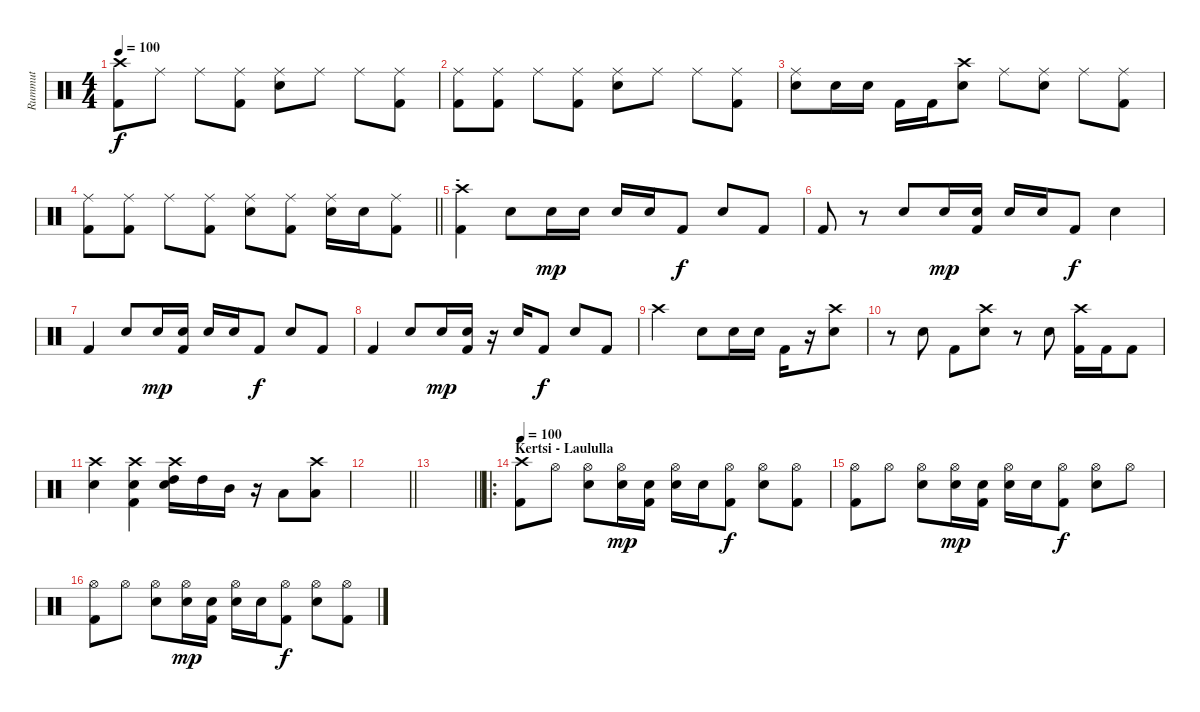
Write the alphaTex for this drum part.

\track ("Rummut" "Rummut") {instrument percussion}
\staff {score}
\articulation defaults
\ts (4 4)
\tempo 100
\clef neutral
\ks c
("Crash high (hit)" "Kick (hit) 2").8{dy f} "Ride (middle)".8 "Ride (middle)".8 ("Ride (middle)" "Kick (hit) 2").8 ("Ride (middle)" "Snare (hit) 2").8 "Ride (middle)".8 "Ride (middle)".8 ("Ride (middle)" "Kick (hit) 2").8 |
("Ride (middle)" "Kick (hit) 2").8 ("Ride (middle)" "Kick (hit) 2").8 "Ride (middle)".8 ("Ride (middle)" "Kick (hit) 2").8 ("Ride (middle)" "Snare (hit) 2").8 "Ride (middle)".8 "Ride (middle)".8 ("Ride (middle)" "Kick (hit) 2").8 |
("Ride (middle)" "Snare (hit) 2").8 "Snare (hit) 2".16 "Snare (hit) 2".16 "Kick (hit) 2".16 "Kick (hit) 2".16 ("Crash high (hit)" "Snare (hit) 2").8 "Ride (middle)".8 ("Ride (middle)" "Snare (hit) 2").8 "Ride (middle)".8 ("Ride (middle)" "Kick (hit) 2").8 |
\barLineRight lightlight
("Ride (middle)" "Kick (hit) 2").8 ("Ride (middle)" "Kick (hit) 2").8 "Ride (middle)".8 ("Ride (middle)" "Kick (hit) 2").8 ("Ride (middle)" "Snare (hit) 2").8 ("Ride (middle)" "Kick (hit) 2").8 ("Ride (middle)" "Snare (hit) 2").16 "Snare (hit) 2".16 ("Ride (middle)" "Kick (hit) 2").8 |
\section ("" "-")
("Crash high (hit)" "Kick (hit) 2").4 "Snare (hit) 2".8 "Snare (hit) 2".16{dy mp} "Snare (hit) 2".16 "Snare (hit) 2".16 "Snare (hit) 2".16 "Kick (hit) 2".8{dy f} "Snare (hit) 2".8 "Kick (hit) 2".8 |
"Kick (hit) 2".8 r.8 "Snare (hit) 2".8 "Snare (hit) 2".16{dy mp} ("Snare (hit) 2" "Kick (hit) 2").16 "Snare (hit) 2".16 "Snare (hit) 2".16 "Kick (hit) 2".8{dy f} "Snare (hit) 2".4 |
"Kick (hit) 2".4 "Snare (hit) 2".8 "Snare (hit) 2".16{dy mp} ("Snare (hit) 2" "Kick (hit) 2").16 "Snare (hit) 2".16 "Snare (hit) 2".16 "Kick (hit) 2".8{dy f} "Snare (hit) 2".8 "Kick (hit) 2".8 |
"Kick (hit) 2".4 "Snare (hit) 2".8 "Snare (hit) 2".16{dy mp} ("Snare (hit) 2" "Kick (hit) 2").16 r.16 "Snare (hit) 2".16 "Kick (hit) 2".8{dy f} "Snare (hit) 2".8 "Kick (hit) 2".8 |
"Crash high (hit)".2 "Snare (hit) 2".8 "Snare (hit) 2".16 "Snare (hit) 2".16 "Kick (hit) 2".16 r.16 ("Crash high (hit)" "Snare (hit) 2").8 |
r.8 "Snare (hit) 2".8 "Kick (hit) 2".8 ("Crash high (hit)" "Snare (hit) 2").8 r.8 "Snare (hit) 2".8 ("Crash high (hit)" "Kick (hit) 2").16 "Kick (hit) 2".16 "Kick (hit) 2".8 |
("Crash high (hit)" "Snare (hit) 2").4 ("Crash high (hit)" "Snare (hit) 2" "Kick (hit) 2").4 ("Crash high (hit)" "High Tom (hit)" "Snare (hit) 2").16 "High Tom (hit)".16 "Mid Tom (hit)".16 r.16 "Low Tom (hit)".8 ("Crash high (hit)" "Low Floor Tom (hit)").8 |
\barLineRight lightlight
|
\barLineRight lightlight
|
\ro
\section ("" "Kertsi - Laululla")
\tempo 100
("Crash high (hit)" "Kick (hit) 2").8 "Hi-Hat (open)".8 ("Hi-Hat (open)" "Snare (hit) 2").8 ("Hi-Hat (open)" "Snare (hit) 2").16{dy mp} ("Snare (hit) 2" "Kick (hit) 2").16 ("Hi-Hat (open)" "Snare (hit) 2").16 "Snare (hit) 2".16 ("Hi-Hat (open)" "Kick (hit) 2").8{dy f} ("Hi-Hat (open)" "Snare (hit) 2").8 ("Hi-Hat (open)" "Kick (hit) 2").8 |
("Hi-Hat (open)" "Kick (hit) 2").8 "Hi-Hat (open)".8 ("Hi-Hat (open)" "Snare (hit) 2").8 ("Hi-Hat (open)" "Snare (hit) 2").16{dy mp} ("Snare (hit) 2" "Kick (hit) 2").16 ("Hi-Hat (open)" "Snare (hit) 2").16 "Snare (hit) 2".16 ("Hi-Hat (open)" "Kick (hit) 2").8{dy f} ("Hi-Hat (open)" "Snare (hit) 2").8 "Hi-Hat (open)".8 |
("Hi-Hat (open)" "Kick (hit) 2").8 "Hi-Hat (open)".8 ("Hi-Hat (open)" "Snare (hit) 2").8 ("Hi-Hat (open)" "Snare (hit) 2").16{dy mp} ("Snare (hit) 2" "Kick (hit) 2").16 ("Hi-Hat (open)" "Snare (hit) 2").16 "Snare (hit) 2".16 ("Hi-Hat (open)" "Kick (hit) 2").8{dy f} ("Hi-Hat (open)" "Snare (hit) 2").8 ("Hi-Hat (open)" "Kick (hit) 2").8
